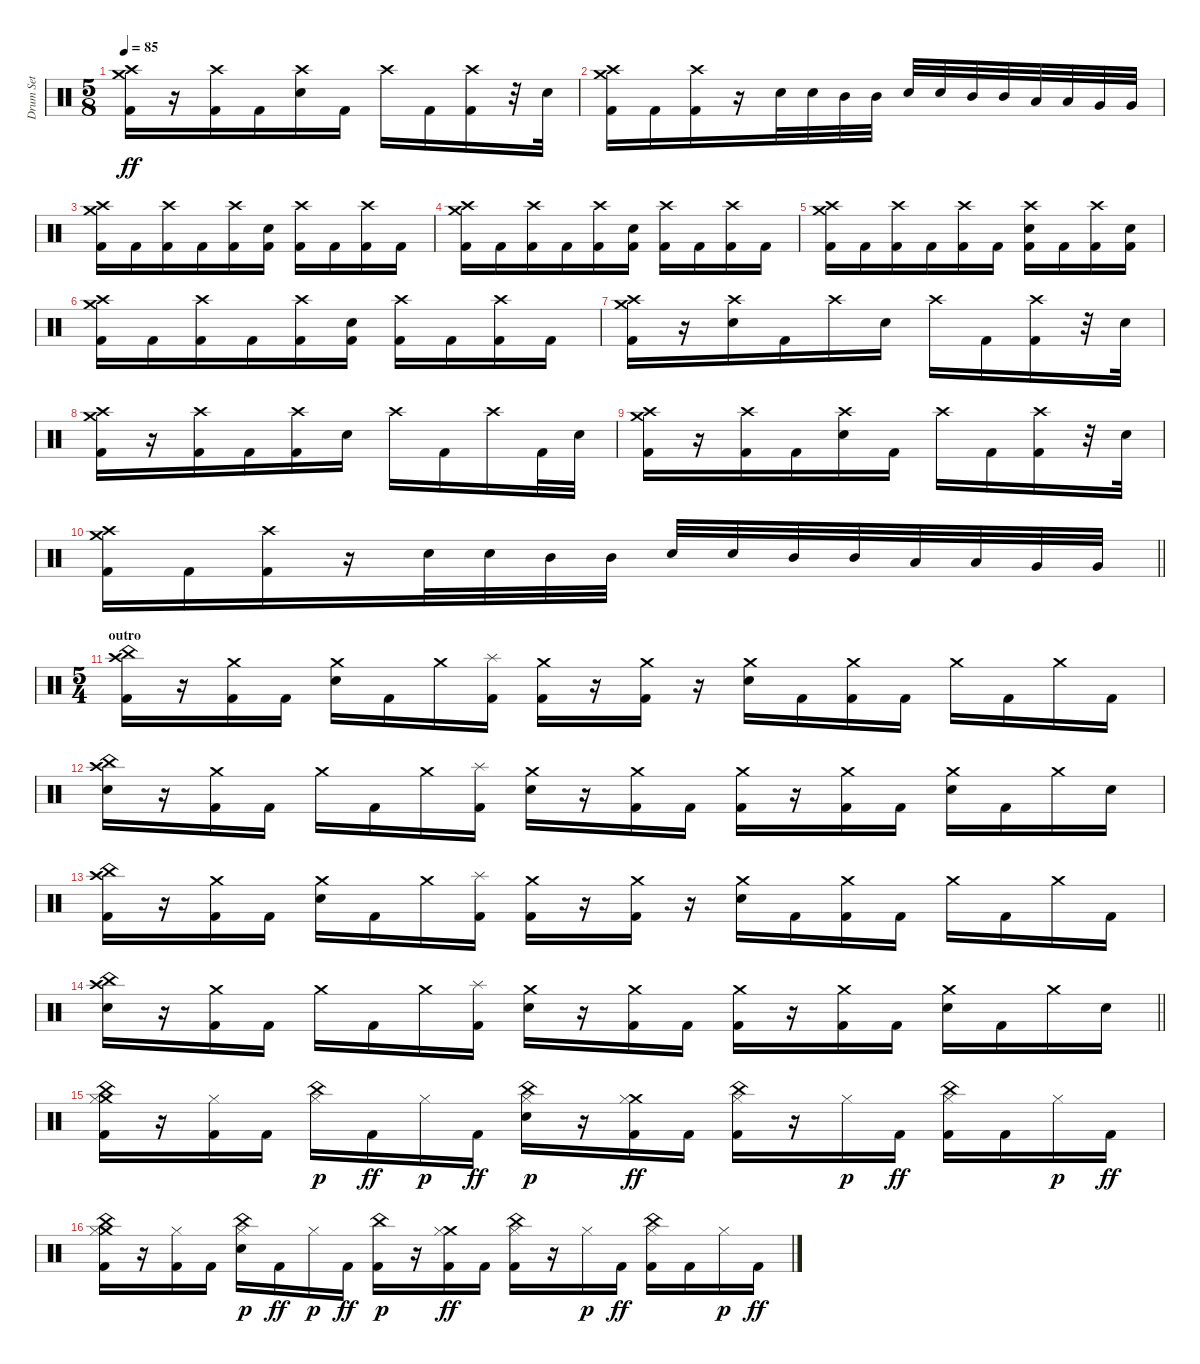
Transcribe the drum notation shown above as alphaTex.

\track ("Drum Set" "Drum Set") {instrument percussion}
\staff {score}
\articulation defaults
\ts (5 8)
\tempo 85
\clef neutral
\ks c
("Crash high (hit)" "Crash medium (hit)" "Kick (hit) 2").16{dy ff} r.16 ("Crash high (hit)" "Kick (hit) 2").16 "Kick (hit) 2".16 ("Crash high (hit)" "Electric Snare (hit)").16 "Kick (hit) 2".16 "Crash high (hit)".16 "Kick (hit) 2".16 ("Crash high (hit)" "Kick (hit) 2").16 r.32 "Electric Snare (hit)".32 |
("Crash high (hit)" "Crash medium (hit)" "Kick (hit) 2").16 "Kick (hit) 2".16 ("Crash high (hit)" "Kick (hit) 2").16 r.16 "Electric Snare (hit)".32 "Electric Snare (hit)".32 "Mid Tom (hit)".32 "Mid Tom (hit)".32 "Electric Snare (hit)".32 "Electric Snare (hit)".32 "Mid Tom (hit)".32 "Mid Tom (hit)".32 "Low Tom (hit)".32 "Low Tom (hit)".32 "Very Low Tom (hit)".32 "Very Low Tom (hit)".32 |
("Crash high (hit)" "Crash medium (hit)" "Kick (hit) 2").16 "Kick (hit) 2".16 ("Crash high (hit)" "Kick (hit) 2").16 "Kick (hit) 2".16 ("Crash high (hit)" "Kick (hit) 2").16 ("Electric Snare (hit)" "Kick (hit) 2").16 ("Crash high (hit)" "Kick (hit) 2").16 "Kick (hit) 2".16 ("Crash high (hit)" "Kick (hit) 2").16 "Kick (hit) 2".16 |
("Crash high (hit)" "Crash medium (hit)" "Kick (hit) 2").16 "Kick (hit) 2".16 ("Crash high (hit)" "Kick (hit) 2").16 "Kick (hit) 2".16 ("Crash high (hit)" "Kick (hit) 2").16 ("Electric Snare (hit)" "Kick (hit) 2").16 ("Crash high (hit)" "Kick (hit) 2").16 "Kick (hit) 2".16 ("Crash high (hit)" "Kick (hit) 2").16 "Kick (hit) 2".16 |
("Crash high (hit)" "Crash medium (hit)" "Kick (hit) 2").16 "Kick (hit) 2".16 ("Crash high (hit)" "Kick (hit) 2").16 "Kick (hit) 2".16 ("Crash high (hit)" "Kick (hit) 2").16 "Kick (hit) 2".16 ("Crash high (hit)" "Electric Snare (hit)" "Kick (hit) 2").16 "Kick (hit) 2".16 ("Crash high (hit)" "Kick (hit) 2").16 ("Electric Snare (hit)" "Kick (hit) 2").16 |
("Crash high (hit)" "Crash medium (hit)" "Kick (hit) 2").16 "Kick (hit) 2".16 ("Crash high (hit)" "Kick (hit) 2").16 "Kick (hit) 2".16 ("Crash high (hit)" "Kick (hit) 2").16 ("Electric Snare (hit)" "Kick (hit) 2").16 ("Crash high (hit)" "Kick (hit) 2").16 "Kick (hit) 2".16 ("Crash high (hit)" "Kick (hit) 2").16 "Kick (hit) 2".16 |
("Crash high (hit)" "Crash medium (hit)" "Kick (hit) 2").16 r.16 ("Crash high (hit)" "Electric Snare (hit)").16 "Kick (hit) 2".16 "Crash high (hit)".16 "Electric Snare (hit)".16 "Crash high (hit)".16 "Kick (hit) 2".16 ("Crash high (hit)" "Kick (hit) 2").16 r.32 "Electric Snare (hit)".32 |
("Crash high (hit)" "Crash medium (hit)" "Kick (hit) 2").16 r.16 ("Crash high (hit)" "Kick (hit) 2").16 "Kick (hit) 2".16 ("Crash high (hit)" "Kick (hit) 2").16 "Electric Snare (hit)".16 "Crash high (hit)".16 "Kick (hit) 2".16 "Crash high (hit)".16 "Kick (hit) 2".32 "Electric Snare (hit)".32 |
("Crash high (hit)" "Crash medium (hit)" "Kick (hit) 2").16 r.16 ("Crash high (hit)" "Kick (hit) 2").16 "Kick (hit) 2".16 ("Crash high (hit)" "Electric Snare (hit)").16 "Kick (hit) 2".16 "Crash high (hit)".16 "Kick (hit) 2".16 ("Crash high (hit)" "Kick (hit) 2").16 r.32 "Electric Snare (hit)".32 |
\barLineRight lightlight
("Crash high (hit)" "Crash medium (hit)" "Kick (hit) 2").16 "Kick (hit) 2".16 ("Crash high (hit)" "Kick (hit) 2").16 r.16 "Electric Snare (hit)".32 "Electric Snare (hit)".32 "Mid Tom (hit)".32 "Mid Tom (hit)".32 "Electric Snare (hit)".32 "Electric Snare (hit)".32 "Mid Tom (hit)".32 "Mid Tom (hit)".32 "Low Tom (hit)".32 "Low Tom (hit)".32 "Very Low Tom (hit)".32 "Very Low Tom (hit)".32 |
\ts (5 4)
\section ("" "outro")
("Crash high (hit)" "China (hit)" "Kick (hit) 2").16 r.16 ("Crash medium (hit)" "Kick (hit) 2").16 "Kick (hit) 2".16 ("Crash medium (hit)" "Electric Snare (hit)").16 "Kick (hit) 2".16 "Crash medium (hit)".16 ("Splash (hit)" "Kick (hit) 2").16 ("Crash medium (hit)" "Kick (hit) 2").16 r.16 ("Crash medium (hit)" "Kick (hit) 2").16 r.16 ("Crash medium (hit)" "Electric Snare (hit)").16 "Kick (hit) 2".16 ("Crash medium (hit)" "Kick (hit) 2").16 "Kick (hit) 2".16 "Crash medium (hit)".16 "Kick (hit) 2".16 "Crash medium (hit)".16 "Kick (hit) 2".16 |
("Crash high (hit)" "China (hit)" "Electric Snare (hit)").16 r.16 ("Crash medium (hit)" "Kick (hit) 2").16 "Kick (hit) 2".16 "Crash medium (hit)".16 "Kick (hit) 2".16 "Crash medium (hit)".16 ("Splash (hit)" "Kick (hit) 2").16 ("Crash medium (hit)" "Electric Snare (hit)").16 r.16 ("Crash medium (hit)" "Kick (hit) 2").16 "Kick (hit) 2".16 ("Crash medium (hit)" "Kick (hit) 2").16 r.16 ("Crash medium (hit)" "Kick (hit) 2").16 "Kick (hit) 2".16 ("Crash medium (hit)" "Electric Snare (hit)").16 "Kick (hit) 2".16 "Crash medium (hit)".16 "Electric Snare (hit)".16 |
("Crash high (hit)" "China (hit)" "Kick (hit) 2").16 r.16 ("Crash medium (hit)" "Kick (hit) 2").16 "Kick (hit) 2".16 ("Crash medium (hit)" "Electric Snare (hit)").16 "Kick (hit) 2".16 "Crash medium (hit)".16 ("Splash (hit)" "Kick (hit) 2").16 ("Crash medium (hit)" "Kick (hit) 2").16 r.16 ("Crash medium (hit)" "Kick (hit) 2").16 r.16 ("Crash medium (hit)" "Electric Snare (hit)").16 "Kick (hit) 2".16 ("Crash medium (hit)" "Kick (hit) 2").16 "Kick (hit) 2".16 "Crash medium (hit)".16 "Kick (hit) 2".16 "Crash medium (hit)".16 "Kick (hit) 2".16 |
\barLineRight lightlight
("Crash high (hit)" "China (hit)" "Electric Snare (hit)").16 r.16 ("Crash medium (hit)" "Kick (hit) 2").16 "Kick (hit) 2".16 "Crash medium (hit)".16 "Kick (hit) 2".16 "Crash medium (hit)".16 ("Splash (hit)" "Kick (hit) 2").16 ("Crash medium (hit)" "Electric Snare (hit)").16 r.16 ("Crash medium (hit)" "Kick (hit) 2").16 "Kick (hit) 2".16 ("Crash medium (hit)" "Kick (hit) 2").16 r.16 ("Crash medium (hit)" "Kick (hit) 2").16 "Kick (hit) 2".16 ("Crash medium (hit)" "Electric Snare (hit)").16 "Kick (hit) 2".16 "Crash medium (hit)".16 "Electric Snare (hit)".16 |
("China (hit)" "Crash medium (hit)" "Hi-Hat (closed)" "Kick (hit) 2").16 r.16 ("Hi-Hat (closed)" "Kick (hit) 2").16 "Kick (hit) 2".16 ("China (hit)" "Hi-Hat (closed)").16{dy p} "Kick (hit) 2".16{dy ff} "Hi-Hat (closed)".16{dy p} "Kick (hit) 2".16{dy ff} ("China (hit)" "Electric Snare (hit)" "Hi-Hat (closed)").16{dy p} r.16 ("Crash medium (hit)" "Hi-Hat (closed)" "Kick (hit) 2").16{dy ff} "Kick (hit) 2".16 ("China (hit)" "Hi-Hat (closed)" "Kick (hit) 2").16 r.16 "Hi-Hat (closed)".16{dy p} "Kick (hit) 2".16{dy ff} ("China (hit)" "Hi-Hat (closed)" "Kick (hit) 2").16 "Kick (hit) 2".16 "Hi-Hat (closed)".16{dy p} "Kick (hit) 2".16{dy ff} |
("China (hit)" "Crash medium (hit)" "Hi-Hat (closed)" "Kick (hit) 2").16 r.16 ("Hi-Hat (closed)" "Kick (hit) 2").16 "Kick (hit) 2".16 ("China (hit)" "Electric Snare (hit)" "Hi-Hat (closed)").16{dy p} "Kick (hit) 2".16{dy ff} "Hi-Hat (closed)".16{dy p} "Kick (hit) 2".16{dy ff} ("China (hit)" "Kick (hit) 2").16{dy p} r.16 ("Crash medium (hit)" "Hi-Hat (closed)" "Kick (hit) 2").16{dy ff} "Kick (hit) 2".16 ("China (hit)" "Hi-Hat (closed)" "Kick (hit) 2").16 r.16 "Hi-Hat (closed)".16{dy p} "Kick (hit) 2".16{dy ff} ("China (hit)" "Hi-Hat (closed)" "Kick (hit) 2").16 "Kick (hit) 2".16 "Hi-Hat (closed)".16{dy p} "Kick (hit) 2".16{dy ff}
